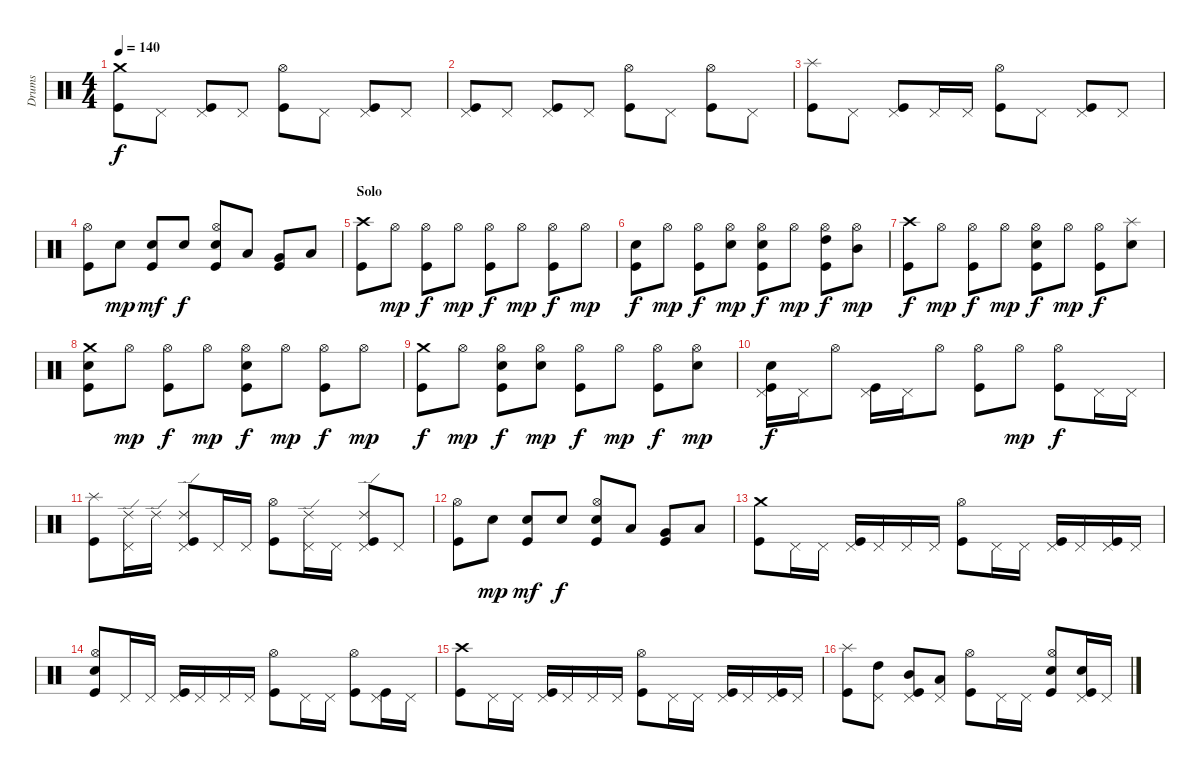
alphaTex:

\track ("Drums" "Drums") {instrument percussion}
\staff {score}
\articulation defaults
\ts (4 4)
\tempo 140
\clef neutral
\ks c
("Crash medium (hit)" "Kick (hit)").8{dy f} "Pedal Hi-Hat (hit)".8 ("Pedal Hi-Hat (hit)" "Kick (hit)").8 "Pedal Hi-Hat (hit)".8 ("Hi-Hat (open)" "Kick (hit)").8 "Pedal Hi-Hat (hit)".8 ("Pedal Hi-Hat (hit)" "Kick (hit)").8 "Pedal Hi-Hat (hit)".8 |
("Pedal Hi-Hat (hit)" "Kick (hit)").8 "Pedal Hi-Hat (hit)".8 ("Pedal Hi-Hat (hit)" "Kick (hit)").8 "Pedal Hi-Hat (hit)".8 ("Hi-Hat (open)" "Kick (hit)").8 "Pedal Hi-Hat (hit)".8 ("Hi-Hat (open)" "Kick (hit)").8 "Pedal Hi-Hat (hit)".8 |
("Splash (hit)" "Kick (hit)").8 "Pedal Hi-Hat (hit)".8 ("Pedal Hi-Hat (hit)" "Kick (hit)").8 "Pedal Hi-Hat (hit)".16 "Pedal Hi-Hat (hit)".16 ("Hi-Hat (open)" "Kick (hit)").8 "Pedal Hi-Hat (hit)".8 ("Pedal Hi-Hat (hit)" "Kick (hit)").8 "Pedal Hi-Hat (hit)".8 |
("Hi-Hat (open)" "Kick (hit)").8 "Snare (hit) 2".8{dy mp} ("Snare (hit) 2" "Kick (hit)").8{dy mf} "Snare (hit) 2".8{dy f} ("Hi-Hat (open)" "Electric Snare (hit)" "Kick (hit)").8 "Low Tom (hit)".8 ("Very Low Tom (hit)" "Kick (hit)").8 "Low Floor Tom (hit)".8 |
\section ("" "Solo")
("Crash high (hit)" "Kick (hit)").8 "Hi-Hat (open)".8{dy mp} ("Hi-Hat (open)" "Kick (hit)").8{dy f} "Hi-Hat (open)".8{dy mp} ("Hi-Hat (open)" "Kick (hit)").8{dy f} "Hi-Hat (open)".8{dy mp} ("Hi-Hat (open)" "Kick (hit)").8{dy f} "Hi-Hat (open)".8{dy mp} |
("Electric Snare (hit)" "Kick (hit)").8{dy f} "Hi-Hat (open)".8{dy mp} ("Hi-Hat (open)" "Kick (hit)").8{dy f} ("Hi-Hat (open)" "Electric Snare (hit)").8{dy mp} ("Hi-Hat (open)" "Electric Snare (hit)" "Kick (hit)").8{dy f} "Hi-Hat (open)".8{dy mp} ("Hi-Hat (open)" "High Tom (hit)" "Kick (hit)").8{dy f} ("Hi-Hat (open)" "Mid Tom (hit)").8{dy mp} |
("Crash high (hit)" "Kick (hit)").8{dy f} "Hi-Hat (open)".8{dy mp} ("Hi-Hat (open)" "Kick (hit)").8{dy f} "Hi-Hat (open)".8{dy mp} ("Hi-Hat (open)" "Electric Snare (hit)" "Kick (hit)").8{dy f} "Hi-Hat (open)".8{dy mp} ("Hi-Hat (open)" "Kick (hit)").8{dy f} ("Splash (hit)" "Electric Snare (hit)").8 |
("Crash medium (hit)" "Electric Snare (hit)" "Kick (hit)").8 "Hi-Hat (open)".8{dy mp} ("Hi-Hat (open)" "Kick (hit)").8{dy f} "Hi-Hat (open)".8{dy mp} ("Hi-Hat (open)" "Electric Snare (hit)" "Kick (hit)").8{dy f} "Hi-Hat (open)".8{dy mp} ("Hi-Hat (open)" "Kick (hit)").8{dy f} "Hi-Hat (open)".8{dy mp} |
("Crash medium (hit)" "Kick (hit)").8{dy f} "Hi-Hat (open)".8{dy mp} ("Hi-Hat (open)" "Snare (hit) 2" "Kick (hit)").8{dy f} ("Hi-Hat (open)" "Snare (hit) 2").8{dy mp} ("Hi-Hat (open)" "Kick (hit)").8{dy f} "Hi-Hat (open)".8{dy mp} ("Hi-Hat (open)" "Kick (hit)").8{dy f} ("Hi-Hat (open)" "Snare (hit) 2").8{dy mp} |
("Pedal Hi-Hat (hit)" "Snare (hit) 2" "Kick (hit)").16{dy f} "Pedal Hi-Hat (hit)".16 "Hi-Hat (open)".8 ("Pedal Hi-Hat (hit)" "Kick (hit)").16 "Pedal Hi-Hat (hit)".16 "Hi-Hat (open)".8 ("Hi-Hat (open)" "Kick (hit)").8 "Hi-Hat (open)".8{dy mp} ("Hi-Hat (open)" "Kick (hit)").8{dy f} "Pedal Hi-Hat (hit)".16 "Pedal Hi-Hat (hit)".16 |
("Splash (hit)" "Kick (hit)").8 ("Ride (edge) 2" "Pedal Hi-Hat (hit)").16 "Ride (edge) 2".16 ("Ride (edge) 2" "Pedal Hi-Hat (hit)" "Kick (hit)").8 "Pedal Hi-Hat (hit)".16 "Pedal Hi-Hat (hit)".16 ("Hi-Hat (open)" "Kick (hit)").8 ("Ride (edge) 2" "Pedal Hi-Hat (hit)").16 "Pedal Hi-Hat (hit)".16 ("Ride (edge) 2" "Pedal Hi-Hat (hit)" "Kick (hit)").8 "Pedal Hi-Hat (hit)".8 |
("Hi-Hat (open)" "Kick (hit)").8 "Snare (hit) 2".8{dy mp} ("Snare (hit) 2" "Kick (hit)").8{dy mf} "Snare (hit) 2".8{dy f} ("Hi-Hat (open)" "Electric Snare (hit)" "Kick (hit)").8 "Low Tom (hit)".8 ("Very Low Tom (hit)" "Kick (hit)").8 "Low Floor Tom (hit)".8 |
("Crash medium (hit)" "Kick (hit)").8 "Pedal Hi-Hat (hit)".16 "Pedal Hi-Hat (hit)".16 ("Pedal Hi-Hat (hit)" "Kick (hit)").16 "Pedal Hi-Hat (hit)".16 "Pedal Hi-Hat (hit)".16 "Pedal Hi-Hat (hit)".16 ("Hi-Hat (open)" "Kick (hit)").8 "Pedal Hi-Hat (hit)".16 "Pedal Hi-Hat (hit)".16 ("Pedal Hi-Hat (hit)" "Kick (hit)").16 "Pedal Hi-Hat (hit)".16 ("Pedal Hi-Hat (hit)" "Kick (hit)").16 "Pedal Hi-Hat (hit)".16 |
("Hi-Hat (open)" "Electric Snare (hit)" "Kick (hit)").8 "Pedal Hi-Hat (hit)".16 "Pedal Hi-Hat (hit)".16 ("Pedal Hi-Hat (hit)" "Kick (hit)").16 "Pedal Hi-Hat (hit)".16 "Pedal Hi-Hat (hit)".16 "Pedal Hi-Hat (hit)".16 ("Hi-Hat (open)" "Kick (hit)").8 "Pedal Hi-Hat (hit)".16 "Pedal Hi-Hat (hit)".16 ("Hi-Hat (open)" "Kick (hit)").8 ("Pedal Hi-Hat (hit)" "Kick (hit)").16 "Pedal Hi-Hat (hit)".16 |
("Crash high (hit)" "Kick (hit)").8 "Pedal Hi-Hat (hit)".16 "Pedal Hi-Hat (hit)".16 ("Pedal Hi-Hat (hit)" "Kick (hit)").16 "Pedal Hi-Hat (hit)".16 "Pedal Hi-Hat (hit)".16 "Pedal Hi-Hat (hit)".16 ("Hi-Hat (open)" "Kick (hit)").8 "Pedal Hi-Hat (hit)".16 "Pedal Hi-Hat (hit)".16 ("Pedal Hi-Hat (hit)" "Kick (hit)").16 "Pedal Hi-Hat (hit)".16 ("Pedal Hi-Hat (hit)" "Kick (hit)").16 "Pedal Hi-Hat (hit)".16 |
("Splash (hit)" "Kick (hit)").8 ("Pedal Hi-Hat (hit)" "High Tom (hit)").8 ("Pedal Hi-Hat (hit)" "Mid Tom (hit)" "Kick (hit)").8 ("Pedal Hi-Hat (hit)" "Low Tom (hit)").8 ("Hi-Hat (open)" "Kick (hit)").8 "Pedal Hi-Hat (hit)".16 "Pedal Hi-Hat (hit)".16 ("Hi-Hat (open)" "Electric Snare (hit)" "Kick (hit)").8 ("Pedal Hi-Hat (hit)" "Electric Snare (hit)" "Kick (hit)").16 "Pedal Hi-Hat (hit)".16
